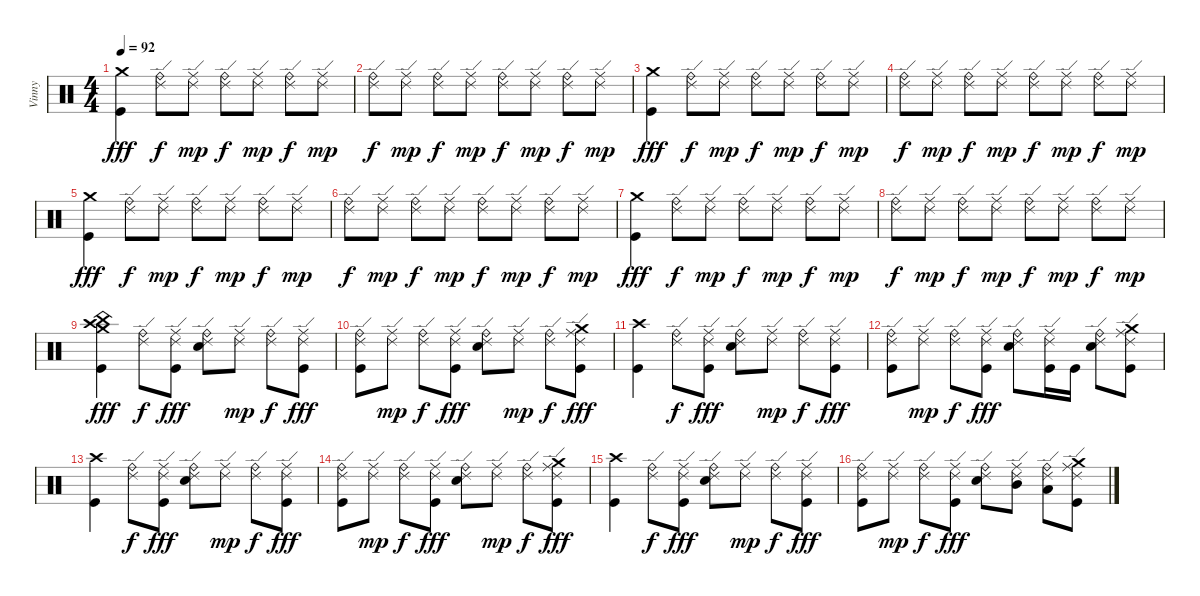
\track ("Vinny" "Vinny") {instrument percussion}
\staff {score}
\articulation defaults
\ts (4 4)
\section ("" "")
\tempo 92
\clef neutral
\ks c
("Crash medium (hit)" "Kick (hit)").4{dy fff} ("Ride (edge) 2" "Ride (bell)").8{dy f} ("Ride (edge) 2" "Ride (middle)").8{dy mp} ("Ride (edge) 2" "Ride (bell)").8{dy f} ("Ride (edge) 2" "Ride (middle)").8{dy mp} ("Ride (edge) 2" "Ride (bell)").8{dy f} ("Ride (edge) 2" "Ride (middle)").8{dy mp} |
("Ride (edge) 2" "Ride (bell)").8{dy f} ("Ride (edge) 2" "Ride (middle)").8{dy mp} ("Ride (edge) 2" "Ride (bell)").8{dy f} ("Ride (edge) 2" "Ride (middle)").8{dy mp} ("Ride (edge) 2" "Ride (bell)").8{dy f} ("Ride (edge) 2" "Ride (middle)").8{dy mp} ("Ride (edge) 2" "Ride (bell)").8{dy f} ("Ride (edge) 2" "Ride (middle)").8{dy mp} |
("Crash medium (hit)" "Kick (hit)").4{dy fff} ("Ride (edge) 2" "Ride (bell)").8{dy f} ("Ride (edge) 2" "Ride (middle)").8{dy mp} ("Ride (edge) 2" "Ride (bell)").8{dy f} ("Ride (edge) 2" "Ride (middle)").8{dy mp} ("Ride (edge) 2" "Ride (bell)").8{dy f} ("Ride (edge) 2" "Ride (middle)").8{dy mp} |
("Ride (edge) 2" "Ride (bell)").8{dy f} ("Ride (edge) 2" "Ride (middle)").8{dy mp} ("Ride (edge) 2" "Ride (bell)").8{dy f} ("Ride (edge) 2" "Ride (middle)").8{dy mp} ("Ride (edge) 2" "Ride (bell)").8{dy f} ("Ride (edge) 2" "Ride (middle)").8{dy mp} ("Ride (edge) 2" "Ride (bell)").8{dy f} ("Ride (edge) 2" "Ride (middle)").8{dy mp} |
("Crash medium (hit)" "Kick (hit)").4{dy fff} ("Ride (edge) 2" "Ride (bell)").8{dy f} ("Ride (edge) 2" "Ride (middle)").8{dy mp} ("Ride (edge) 2" "Ride (bell)").8{dy f} ("Ride (edge) 2" "Ride (middle)").8{dy mp} ("Ride (edge) 2" "Ride (bell)").8{dy f} ("Ride (edge) 2" "Ride (middle)").8{dy mp} |
("Ride (edge) 2" "Ride (bell)").8{dy f} ("Ride (edge) 2" "Ride (middle)").8{dy mp} ("Ride (edge) 2" "Ride (bell)").8{dy f} ("Ride (edge) 2" "Ride (middle)").8{dy mp} ("Ride (edge) 2" "Ride (bell)").8{dy f} ("Ride (edge) 2" "Ride (middle)").8{dy mp} ("Ride (edge) 2" "Ride (bell)").8{dy f} ("Ride (edge) 2" "Ride (middle)").8{dy mp} |
("Crash medium (hit)" "Kick (hit)").4{dy fff} ("Ride (edge) 2" "Ride (bell)").8{dy f} ("Ride (edge) 2" "Ride (middle)").8{dy mp} ("Ride (edge) 2" "Ride (bell)").8{dy f} ("Ride (edge) 2" "Ride (middle)").8{dy mp} ("Ride (edge) 2" "Ride (bell)").8{dy f} ("Ride (edge) 2" "Ride (middle)").8{dy mp} |
("Ride (edge) 2" "Ride (bell)").8{dy f} ("Ride (edge) 2" "Ride (middle)").8{dy mp} ("Ride (edge) 2" "Ride (bell)").8{dy f} ("Ride (edge) 2" "Ride (middle)").8{dy mp} ("Ride (edge) 2" "Ride (bell)").8{dy f} ("Ride (edge) 2" "Ride (middle)").8{dy mp} ("Ride (edge) 2" "Ride (bell)").8{dy f} ("Ride (edge) 2" "Ride (middle)").8{dy mp} |
("Crash high (hit)" "Crash medium (hit)" "China (hit)" "Kick (hit)").4{dy fff} ("Ride (edge) 2" "Ride (bell)").8{dy f} ("Ride (edge) 2" "Ride (middle)" "Kick (hit)").8{dy fff} ("Ride (edge) 2" "Ride (bell)" "Electric Snare (hit)").8 ("Ride (edge) 2" "Ride (middle)").8{dy mp} ("Ride (edge) 2" "Ride (bell)").8{dy f} ("Ride (edge) 2" "Ride (middle)" "Kick (hit)").8{dy fff} |
("Ride (edge) 2" "Ride (bell)" "Kick (hit)").8 ("Ride (edge) 2" "Ride (middle)").8{dy mp} ("Ride (edge) 2" "Ride (bell)").8{dy f} ("Ride (edge) 2" "Ride (middle)" "Kick (hit)").8{dy fff} ("Ride (edge) 2" "Ride (bell)" "Electric Snare (hit)").8 ("Ride (edge) 2" "Ride (middle)").8{dy mp} ("Ride (edge) 2" "Ride (bell)").8{dy f} ("Crash medium (hit)" "Ride (edge) 2" "Ride (middle)" "Kick (hit)").8{dy fff} |
("Crash high (hit)" "Kick (hit)").4 ("Ride (edge) 2" "Ride (bell)").8{dy f} ("Ride (edge) 2" "Ride (middle)" "Kick (hit)").8{dy fff} ("Ride (edge) 2" "Ride (bell)" "Electric Snare (hit)").8 ("Ride (edge) 2" "Ride (middle)").8{dy mp} ("Ride (edge) 2" "Ride (bell)").8{dy f} ("Ride (edge) 2" "Ride (middle)" "Kick (hit)").8{dy fff} |
("Ride (edge) 2" "Ride (bell)" "Kick (hit)").8 ("Ride (edge) 2" "Ride (middle)").8{dy mp} ("Ride (edge) 2" "Ride (bell)").8{dy f} ("Ride (edge) 2" "Ride (middle)" "Kick (hit)").8{dy fff} ("Ride (edge) 2" "Ride (bell)" "Electric Snare (hit)").8 ("Ride (edge) 2" "Ride (middle)" "Kick (hit)").16 "Kick (hit)".16 ("Ride (edge) 2" "Ride (bell)" "Electric Snare (hit)").8 ("Crash medium (hit)" "Ride (edge) 2" "Ride (middle)" "Kick (hit)").8 |
("Crash high (hit)" "Kick (hit)").4 ("Ride (edge) 2" "Ride (bell)").8{dy f} ("Ride (edge) 2" "Ride (middle)" "Kick (hit)").8{dy fff} ("Ride (edge) 2" "Ride (bell)" "Electric Snare (hit)").8 ("Ride (edge) 2" "Ride (middle)").8{dy mp} ("Ride (edge) 2" "Ride (bell)").8{dy f} ("Ride (edge) 2" "Ride (middle)" "Kick (hit)").8{dy fff} |
("Ride (edge) 2" "Ride (bell)" "Kick (hit)").8 ("Ride (edge) 2" "Ride (middle)").8{dy mp} ("Ride (edge) 2" "Ride (bell)").8{dy f} ("Ride (edge) 2" "Ride (middle)" "Kick (hit)").8{dy fff} ("Ride (edge) 2" "Ride (bell)" "Electric Snare (hit)").8 ("Ride (edge) 2" "Ride (middle)").8{dy mp} ("Ride (edge) 2" "Ride (bell)").8{dy f} ("Crash medium (hit)" "Ride (edge) 2" "Ride (middle)" "Kick (hit)").8{dy fff} |
("Crash high (hit)" "Kick (hit)").4 ("Ride (edge) 2" "Ride (bell)").8{dy f} ("Ride (edge) 2" "Ride (middle)" "Kick (hit)").8{dy fff} ("Ride (edge) 2" "Ride (bell)" "Electric Snare (hit)").8 ("Ride (edge) 2" "Ride (middle)").8{dy mp} ("Ride (edge) 2" "Ride (bell)").8{dy f} ("Ride (edge) 2" "Ride (middle)" "Kick (hit)").8{dy fff} |
("Ride (edge) 2" "Ride (bell)" "Kick (hit)").8 ("Ride (edge) 2" "Ride (middle)").8{dy mp} ("Ride (edge) 2" "Ride (bell)").8{dy f} ("Ride (edge) 2" "Ride (middle)" "Kick (hit)").8{dy fff} ("Ride (edge) 2" "Ride (bell)" "Electric Snare (hit)").8 ("Ride (edge) 2" "Ride (middle)" "Mid Tom (hit)").8 ("Ride (edge) 2" "Ride (bell)" "Low Floor Tom (hit)").8 ("Crash medium (hit)" "Ride (edge) 2" "Ride (middle)" "Kick (hit)").8
